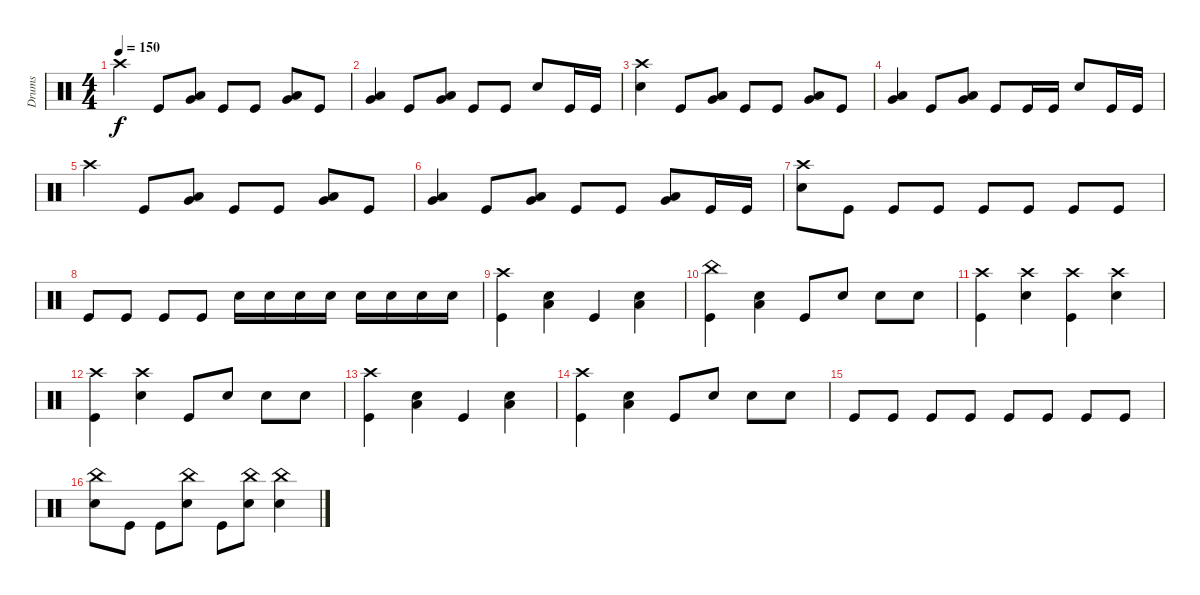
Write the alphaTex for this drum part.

\track ("Drums" "Drums") {instrument percussion}
\staff {score}
\articulation defaults
\ts (4 4)
\tempo 150
\clef neutral
\ks c "Crash high (hit)".4{dy f} "Kick (hit)".8
("Very Low Tom (hit)" "Low Floor Tom (hit)").8 "Kick (hit)".8 "Kick (hit)".8 ("Very Low Tom (hit)" "Low Floor Tom (hit)").8 "Kick (hit)".8 |
("Very Low Tom (hit)" "Low Floor Tom (hit)").4 "Kick (hit)".8 ("Very Low Tom (hit)" "Low Floor Tom (hit)").8 "Kick (hit)".8 "Kick (hit)".8 "Snare (hit) 2".8 "Kick (hit)".16 "Kick (hit)".16 |
("Crash high (hit)" "Snare (hit) 2").4 "Kick (hit)".8 ("Very Low Tom (hit)" "Low Floor Tom (hit)").8 "Kick (hit)".8 "Kick (hit)".8 ("Very Low Tom (hit)" "Low Floor Tom (hit)").8 "Kick (hit)".8 |
("Very Low Tom (hit)" "Low Floor Tom (hit)").4 "Kick (hit)".8 ("Very Low Tom (hit)" "Low Floor Tom (hit)").8 "Kick (hit)".8 "Kick (hit)".16 "Kick (hit)".16 "Snare (hit) 2".8 "Kick (hit)".16 "Kick (hit)".16 |
"Crash high (hit)".4 "Kick (hit)".8 ("Very Low Tom (hit)" "Low Floor Tom (hit)").8 "Kick (hit)".8 "Kick (hit)".8 ("Very Low Tom (hit)" "Low Floor Tom (hit)").8 "Kick (hit)".8 |
("Very Low Tom (hit)" "Low Floor Tom (hit)").4 "Kick (hit)".8 ("Very Low Tom (hit)" "Low Floor Tom (hit)").8 "Kick (hit)".8 "Kick (hit)".8 ("Very Low Tom (hit)" "Low Floor Tom (hit)").8 "Kick (hit)".16 "Kick (hit)".16 |
("Snare (hit) 2" "Crash high (hit)").8 "Kick (hit)".8 "Kick (hit)".8 "Kick (hit)".8 "Kick (hit)".8 "Kick (hit)".8 "Kick (hit)".8 "Kick (hit)".8 |
"Kick (hit)".8 "Kick (hit)".8 "Kick (hit)".8 "Kick (hit)".8 "Snare (hit) 2".16 "Snare (hit) 2".16 "Snare (hit) 2".16 "Snare (hit) 2".16 "Snare (hit) 2".16 "Snare (hit) 2".16 "Snare (hit) 2".16 "Snare (hit) 2".16 |
("Kick (hit)" "Crash high (hit)").4 ("Snare (hit) 2" "Low Floor Tom (hit)").4 "Kick (hit)".4 ("Snare (hit) 2" "Low Floor Tom (hit)").4 |
("Kick (hit)" "China (hit)").4 ("Snare (hit) 2" "Low Floor Tom (hit)").4 "Kick (hit)".8 "Snare (hit) 2".8 "Snare (hit) 2".8 "Snare (hit) 2".8 |
("Kick (hit)" "Crash high (hit)").4 ("Snare (hit) 2" "Crash high (hit)").4 ("Kick (hit)" "Crash high (hit)").4 ("Snare (hit) 2" "Crash high (hit)").4 |
("Kick (hit)" "Crash high (hit)").4 ("Snare (hit) 2" "Crash high (hit)").4 "Kick (hit)".8 "Snare (hit) 2".8 "Snare (hit) 2".8 "Snare (hit) 2".8 |
("Kick (hit)" "Crash high (hit)").4 ("Snare (hit) 2" "Low Floor Tom (hit)").4 "Kick (hit)".4 ("Snare (hit) 2" "Low Floor Tom (hit)").4 |
("Kick (hit)" "Crash high (hit)").4 ("Snare (hit) 2" "Low Floor Tom (hit)").4 "Kick (hit)".8 "Snare (hit) 2".8 "Snare (hit) 2".8 "Snare (hit) 2".8 |
"Kick (hit)".8 "Kick (hit)".8 "Kick (hit)".8 "Kick (hit)".8 "Kick (hit)".8 "Kick (hit)".8 "Kick (hit)".8 "Kick (hit)".8 |
("Snare (hit) 2" "China (hit)").8 "Kick (hit)".8 "Kick (hit)".8 ("Snare (hit) 2" "China (hit)").8 "Kick (hit)".8 ("Snare (hit) 2" "China (hit)").8 ("Snare (hit) 2" "China (hit)").4
